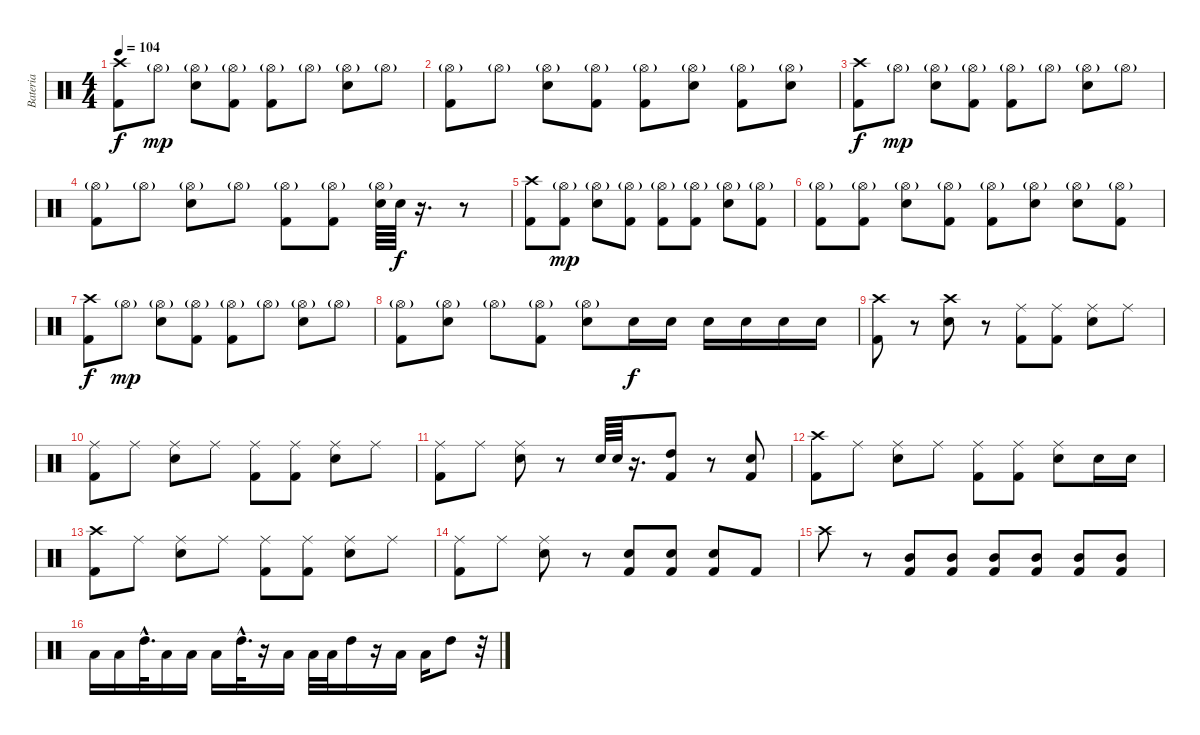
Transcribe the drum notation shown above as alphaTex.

\track ("Bateria" "Bateria") {instrument percussion}
\staff {score}
\articulation defaults
\ts (4 4)
\tempo 104
\clef neutral
\ks c
("Crash high (hit)" "Kick (hit) 2").8{dy f} "Hi-Hat (open)"{g}.8{dy mp} ("Hi-Hat (open)"{g} "Snare (hit) 2").8 ("Hi-Hat (open)"{g} "Kick (hit) 2").8 ("Hi-Hat (open)"{g} "Kick (hit) 2").8 "Hi-Hat (open)"{g}.8 ("Hi-Hat (open)"{g} "Snare (hit) 2").8 "Hi-Hat (open)"{g}.8 |
("Hi-Hat (open)"{g} "Kick (hit) 2").8 "Hi-Hat (open)"{g}.8 ("Hi-Hat (open)"{g} "Snare (hit) 2").8 ("Hi-Hat (open)"{g} "Kick (hit) 2").8 ("Hi-Hat (open)"{g} "Kick (hit) 2").8 ("Hi-Hat (open)"{g} "Snare (hit) 2").8 ("Hi-Hat (open)"{g} "Kick (hit) 2").8 ("Hi-Hat (open)"{g} "Snare (hit) 2").8 |
("Crash high (hit)" "Kick (hit) 2").8{dy f} "Hi-Hat (open)"{g}.8{dy mp} ("Hi-Hat (open)"{g} "Snare (hit) 2").8 ("Hi-Hat (open)"{g} "Kick (hit) 2").8 ("Hi-Hat (open)"{g} "Kick (hit) 2").8 "Hi-Hat (open)"{g}.8 ("Hi-Hat (open)"{g} "Snare (hit) 2").8 "Hi-Hat (open)"{g}.8 |
("Hi-Hat (open)"{g} "Kick (hit) 2").8 "Hi-Hat (open)"{g}.8 ("Hi-Hat (open)"{g} "Snare (hit) 2").8 "Hi-Hat (open)"{g}.8 ("Hi-Hat (open)"{g} "Kick (hit) 2").8 ("Hi-Hat (open)"{g} "Kick (hit) 2").8 ("Hi-Hat (open)"{g} "Snare (hit) 2").64 "Snare (hit) 2".64{dy f} r.16{d} r.8 |
("Crash high (hit)" "Kick (hit) 2").8 ("Hi-Hat (open)"{g} "Kick (hit) 2").8{dy mp} ("Hi-Hat (open)"{g} "Snare (hit) 2").8 ("Hi-Hat (open)"{g} "Kick (hit) 2").8 ("Hi-Hat (open)"{g} "Kick (hit) 2").8 ("Hi-Hat (open)"{g} "Kick (hit) 2").8 ("Hi-Hat (open)"{g} "Snare (hit) 2").8 ("Hi-Hat (open)"{g} "Kick (hit) 2").8 |
("Hi-Hat (open)"{g} "Kick (hit) 2").8 ("Hi-Hat (open)"{g} "Kick (hit) 2").8 ("Hi-Hat (open)"{g} "Snare (hit) 2").8 ("Hi-Hat (open)"{g} "Kick (hit) 2").8 ("Hi-Hat (open)"{g} "Kick (hit) 2").8 ("Hi-Hat (open)"{g} "Snare (hit) 2").8 ("Hi-Hat (open)"{g} "Snare (hit) 2").8 ("Hi-Hat (open)"{g} "Kick (hit) 2").8 |
("Crash high (hit)" "Kick (hit) 2").8{dy f} "Hi-Hat (open)"{g}.8{dy mp} ("Hi-Hat (open)"{g} "Snare (hit) 2").8 ("Hi-Hat (open)"{g} "Kick (hit) 2").8 ("Hi-Hat (open)"{g} "Kick (hit) 2").8 "Hi-Hat (open)"{g}.8 ("Hi-Hat (open)"{g} "Snare (hit) 2").8 "Hi-Hat (open)"{g}.8 |
("Hi-Hat (open)"{g} "Kick (hit) 2").8 ("Hi-Hat (open)"{g} "Snare (hit) 2").8 "Hi-Hat (open)"{g}.8 ("Hi-Hat (open)"{g} "Kick (hit) 2").8 ("Hi-Hat (open)"{g} "Snare (hit) 2").8 "Snare (hit) 2".16{dy f} "Snare (hit) 2".16 "Snare (hit) 2".16 "Snare (hit) 2".16 "Snare (hit) 2".16 "Snare (hit) 2".16 |
("Crash high (hit)" "Kick (hit) 2").8 r.8 ("Crash high (hit)" "Snare (hit) 2").8 r.8 ("Ride (middle)" "Kick (hit) 2").8 ("Ride (middle)" "Kick (hit) 2").8 ("Ride (middle)" "Snare (hit) 2").8 "Ride (middle)".8 |
("Ride (middle)" "Kick (hit) 2").8 "Ride (middle)".8 ("Ride (middle)" "Snare (hit) 2").8 "Ride (middle)".8 ("Ride (middle)" "Kick (hit) 2").8 ("Ride (middle)" "Kick (hit) 2").8 ("Ride (middle)" "Snare (hit) 2").8 "Ride (middle)".8 |
("Ride (middle)" "Kick (hit) 2").8 "Ride (middle)".8 ("Ride (middle)" "Snare (hit) 2").8 r.8 "Snare (hit) 2".64 "Snare (hit) 2".64 r.16{d} ("Kick (hit) 2" "High Tom (hit)").8 r.8 ("Snare (hit) 2" "Kick (hit) 2").8 |
("Crash high (hit)" "Kick (hit) 2").8 "Ride (middle)".8 ("Ride (middle)" "Snare (hit) 2").8 "Ride (middle)".8 ("Ride (middle)" "Kick (hit) 2").8 ("Ride (middle)" "Kick (hit) 2").8 ("Ride (middle)" "Snare (hit) 2").8 "Snare (hit) 2".16 "Snare (hit) 2".16 |
("Crash high (hit)" "Kick (hit) 2").8 "Ride (middle)".8 ("Ride (middle)" "Snare (hit) 2").8 "Ride (middle)".8 ("Ride (middle)" "Kick (hit) 2").8 ("Ride (middle)" "Kick (hit) 2").8 ("Ride (middle)" "Snare (hit) 2").8 "Ride (middle)".8 |
("Ride (middle)" "Kick (hit) 2").8 "Ride (middle)".8 ("Ride (middle)" "Snare (hit) 2").8 r.8 ("Kick (hit) 2" "Snare (hit) 2").8 ("Kick (hit) 2" "Snare (hit) 2").8 ("Kick (hit) 2" "Snare (hit) 2").8 "Kick (hit) 2".8 |
"Crash high (hit)".8 r.8 ("Mid Tom (hit)" "Kick (hit) 2").8 ("Mid Tom (hit)" "Kick (hit) 2").8 ("Mid Tom (hit)" "Kick (hit) 2").8 ("Mid Tom (hit)" "Kick (hit) 2").8 ("Mid Tom (hit)" "Kick (hit) 2").8 ("Mid Tom (hit)" "Kick (hit) 2").8 |
"Low Tom (hit)".16 "Low Tom (hit)".16 "High Tom (hit)"{hac}.32{d} "Low Tom (hit)".16 "Low Tom (hit)".16 "Low Tom (hit)".16 "High Tom (hit)"{hac}.32{d} r.16 "Low Tom (hit)".16 "Low Tom (hit)".32 "Low Tom (hit)".32 "High Tom (hit)".16 r.16 "Low Tom (hit)".16 "Low Tom (hit)".16 "High Tom (hit)".8 r.32
